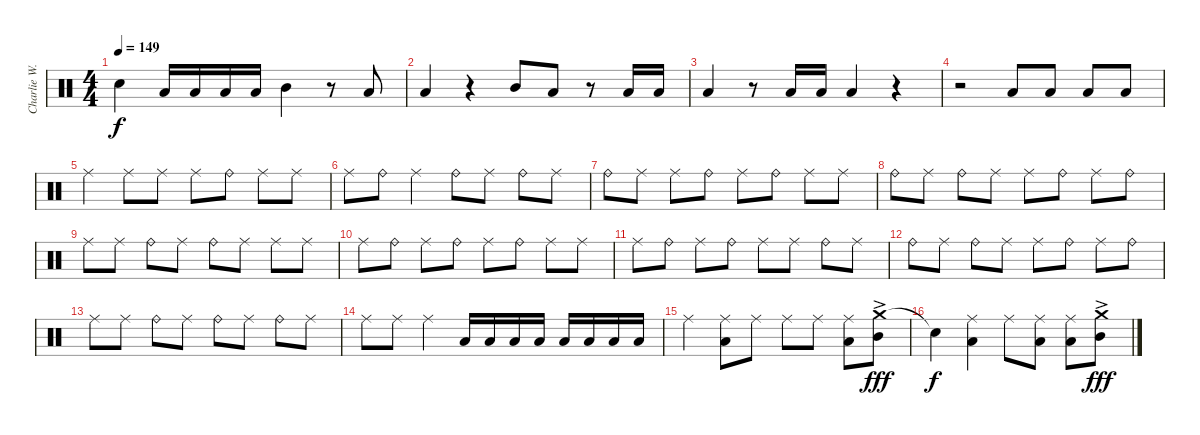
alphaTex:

\track ("Charlie W. drums" "Charlie W.") {instrument percussion}
\staff {score}
\articulation defaults
\ts (4 4)
\tempo 149
\clef neutral
\ks c "Snare (hit)"{t}.4{dy f} "Low Tom (hit)".16 "Low Tom (hit)".16 "Low Tom (hit)".16 "Low Tom (hit)".16 "Mid Tom (hit)".4
r.8 "Low Tom (hit)".8 |
"Low Tom (hit)".4 r.4 "Mid Tom (hit)".8 "Low Tom (hit)".8 r.8 "Low Tom (hit)".16 "Low Tom (hit)".16 |
"Low Tom (hit)".4 r.8 "Low Tom (hit)".16 "Low Tom (hit)".16 "Low Tom (hit)".4 r.4 |
r.2 "Low Tom (hit)".8 "Low Tom (hit)".8 "Low Tom (hit)".8 "Low Tom (hit)".8 |
"Ride (middle)".4 "Ride (middle)".8 "Ride (middle)".8 "Ride (middle)".8 "Ride (bell)".8 "Ride (middle)".8 "Ride (middle)".8 |
"Ride (middle)".8 "Ride (bell)".8 "Ride (middle)".4 "Ride (bell)".8 "Ride (middle)".8 "Ride (bell)".8 "Ride (middle)".8 |
"Ride (bell)".8 "Ride (middle)".8 "Ride (middle)".8 "Ride (bell)".8 "Ride (middle)".8 "Ride (bell)".8 "Ride (middle)".8 "Ride (middle)".8 |
"Ride (bell)".8 "Ride (middle)".8 "Ride (bell)".8 "Ride (middle)".8 "Ride (middle)".8 "Ride (bell)".8 "Ride (middle)".8 "Ride (bell)".8 |
"Ride (middle)".8 "Ride (middle)".8 "Ride (bell)".8 "Ride (middle)".8 "Ride (bell)".8 "Ride (middle)".8 "Ride (middle)".8 "Ride (middle)".8 |
"Ride (middle)".8 "Ride (bell)".8 "Ride (middle)".8 "Ride (bell)".8 "Ride (middle)".8 "Ride (bell)".8 "Ride (middle)".8 "Ride (middle)".8 |
"Ride (middle)".8 "Ride (bell)".8 "Ride (middle)".8 "Ride (bell)".8 "Ride (middle)".8 "Ride (middle)".8 "Ride (bell)".8 "Ride (middle)".8 |
"Ride (bell)".8 "Ride (middle)".8 "Ride (bell)".8 "Ride (middle)".8 "Ride (middle)".8 "Ride (bell)".8 "Ride (middle)".8 "Ride (bell)".8 |
"Ride (middle)".8 "Ride (middle)".8 "Ride (bell)".8 "Ride (middle)".8 "Ride (bell)".8 "Ride (middle)".8 "Ride (bell)".8 "Ride (middle)".8 |
"Ride (middle)".8 "Ride (middle)".8 "Ride (middle)".4 "Low Tom (hit)".16 "Low Tom (hit)".16 "Low Tom (hit)".16 "Low Tom (hit)".16 "Low Tom (hit)".16 "Low Tom (hit)".16 "Low Tom (hit)".16 "Low Tom (hit)".16 |
"Ride (middle)".4 ("Ride (middle)" "Low Tom (hit)").8 "Ride (middle)".8 "Ride (middle)".8 "Ride (middle)".8 ("Ride (middle)" "Low Tom (hit)").8 ("Crash medium (hit)"{ac} "Mid Tom (hit)").8{dy fff} |
"Snare (hit)"{t}.4{dy f} ("Ride (middle)" "Low Tom (hit)").4 "Ride (middle)".8 ("Ride (middle)" "Low Tom (hit)").8 ("Ride (middle)" "Low Tom (hit)").8 ("Crash medium (hit)"{ac} "Mid Tom (hit)"{ac}).8{dy fff}
